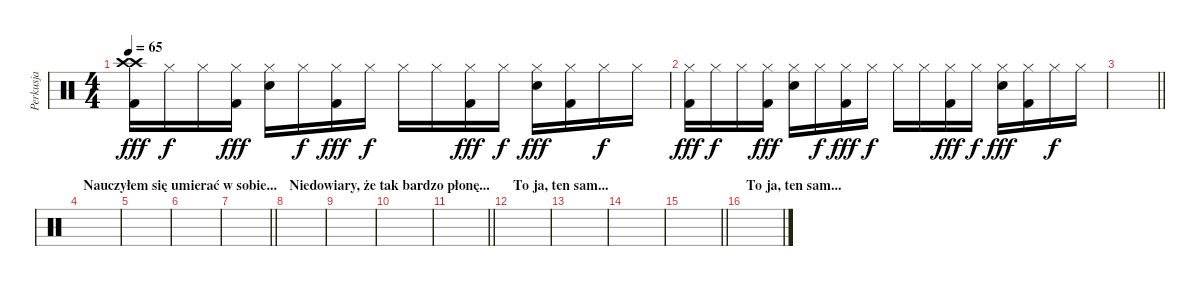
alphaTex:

\track ("Perkusja" "Perkusja") {instrument percussion}
\staff {score}
\articulation defaults
\ts (4 4)
\tempo 65
\clef neutral
\ks c
("Crash high (hit)" "Crash high (hit)" "Kick (hit) 2").16{dy fff} "Hi-Hat (closed)".16{dy f} "Hi-Hat (closed)".16 ("Hi-Hat (closed)" "Kick (hit) 2").16{dy fff} ("Hi-Hat (closed)" "Snare (hit) 2").16 "Hi-Hat (closed)".16{dy f} ("Hi-Hat (closed)" "Kick (hit) 2").16{dy fff} "Hi-Hat (closed)".16{dy f} "Hi-Hat (closed)".16 "Hi-Hat (closed)".16 ("Hi-Hat (closed)" "Kick (hit) 2").16{dy fff} "Hi-Hat (closed)".16{dy f} ("Hi-Hat (closed)" "Snare (hit) 2").16{dy fff} ("Hi-Hat (closed)" "Kick (hit) 2").16 "Hi-Hat (closed)".16{dy f} "Hi-Hat (closed)".16 |
("Hi-Hat (closed)" "Kick (hit) 2").16{dy fff} "Hi-Hat (closed)".16{dy f} "Hi-Hat (closed)".16 ("Hi-Hat (closed)" "Kick (hit) 2").16{dy fff} ("Hi-Hat (closed)" "Snare (hit) 2").16 "Hi-Hat (closed)".16{dy f} ("Hi-Hat (closed)" "Kick (hit) 2").16{dy fff} "Hi-Hat (closed)".16{dy f} "Hi-Hat (closed)".16 "Hi-Hat (closed)".16 ("Hi-Hat (closed)" "Kick (hit) 2").16{dy fff} "Hi-Hat (closed)".16{dy f} ("Hi-Hat (closed)" "Snare (hit) 2").16{dy fff} ("Hi-Hat (closed)" "Kick (hit) 2").16 "Hi-Hat (closed)".16{dy f} "Hi-Hat (closed)".16 |
\barLineRight lightlight
|
\section ("" "Nauczyłem się umierać w sobie...")
|
|
|
\barLineRight lightlight
|
\section ("" "Niedowiary, że tak bardzo płonę...")
|
|
|
\barLineRight lightlight
|
\section ("" "To ja, ten sam...")
|
|
|
\barLineRight lightlight
|
\section ("" "To ja, ten sam...")
